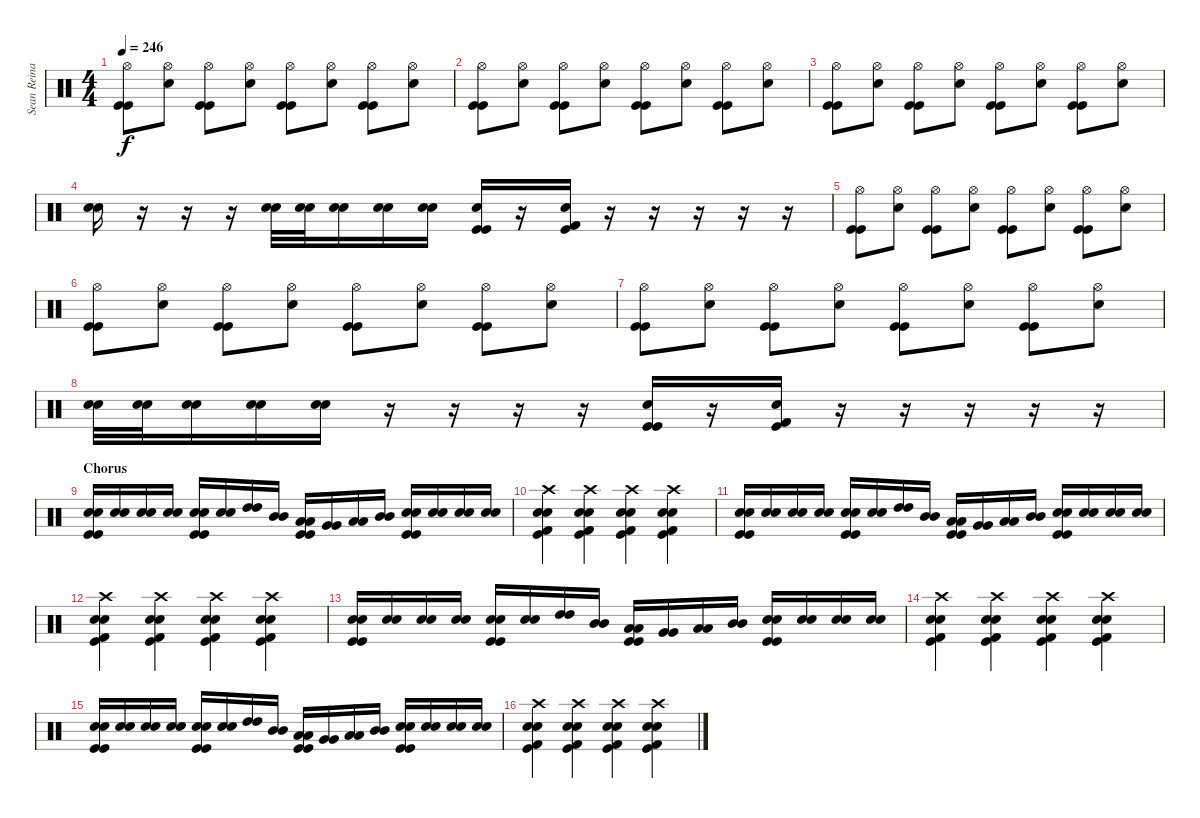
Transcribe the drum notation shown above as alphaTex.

\track ("Sean Reinart" "Sean Reina") {instrument percussion}
\staff {score}
\articulation defaults
\ts (4 4)
\tempo 246
\clef neutral
\ks c
("Hi-Hat (open)" "Kick (hit)" "Kick (hit)").8{dy f} ("Hi-Hat (open)" "Snare (hit) 2").8 ("Hi-Hat (open)" "Kick (hit)" "Kick (hit)").8 ("Hi-Hat (open)" "Snare (hit) 2").8 ("Hi-Hat (open)" "Kick (hit)" "Kick (hit)").8 ("Hi-Hat (open)" "Snare (hit) 2").8 ("Hi-Hat (open)" "Kick (hit)" "Kick (hit)").8 ("Hi-Hat (open)" "Snare (hit) 2").8 |
("Hi-Hat (open)" "Kick (hit)" "Kick (hit)").8 ("Hi-Hat (open)" "Snare (hit) 2").8 ("Hi-Hat (open)" "Kick (hit)" "Kick (hit)").8 ("Hi-Hat (open)" "Snare (hit) 2").8 ("Hi-Hat (open)" "Kick (hit)" "Kick (hit)").8 ("Hi-Hat (open)" "Snare (hit) 2").8 ("Hi-Hat (open)" "Kick (hit)" "Kick (hit)").8 ("Hi-Hat (open)" "Snare (hit) 2").8 |
("Hi-Hat (open)" "Kick (hit)" "Kick (hit)").8 ("Hi-Hat (open)" "Snare (hit) 2").8 ("Hi-Hat (open)" "Kick (hit)" "Kick (hit)").8 ("Hi-Hat (open)" "Snare (hit) 2").8 ("Hi-Hat (open)" "Kick (hit)" "Kick (hit)").8 ("Hi-Hat (open)" "Snare (hit) 2").8 ("Hi-Hat (open)" "Kick (hit)" "Kick (hit)").8 ("Hi-Hat (open)" "Snare (hit) 2").8 |
("Snare (hit) 2" "Electric Snare (hit)").16 r.16 r.16 r.16 ("Snare (hit) 2" "Electric Snare (hit)").32 ("Snare (hit) 2" "Electric Snare (hit)").32 ("Snare (hit) 2" "Electric Snare (hit)").16 ("Snare (hit) 2" "Electric Snare (hit)").16 ("Snare (hit) 2" "Electric Snare (hit)").16 ("Snare (hit) 2" "Kick (hit)" "Kick (hit)").16 r.16 ("Snare (hit) 2" "Kick (hit)" "Kick (hit) 2").16 r.16 r.16 r.16 r.16 r.16 |
("Hi-Hat (open)" "Kick (hit)" "Kick (hit)").8 ("Hi-Hat (open)" "Snare (hit) 2").8 ("Hi-Hat (open)" "Kick (hit)" "Kick (hit)").8 ("Hi-Hat (open)" "Snare (hit) 2").8 ("Hi-Hat (open)" "Kick (hit)" "Kick (hit)").8 ("Hi-Hat (open)" "Snare (hit) 2").8 ("Hi-Hat (open)" "Kick (hit)" "Kick (hit)").8 ("Hi-Hat (open)" "Snare (hit) 2").8 |
("Hi-Hat (open)" "Kick (hit)" "Kick (hit)").8 ("Hi-Hat (open)" "Snare (hit) 2").8 ("Hi-Hat (open)" "Kick (hit)" "Kick (hit)").8 ("Hi-Hat (open)" "Snare (hit) 2").8 ("Hi-Hat (open)" "Kick (hit)" "Kick (hit)").8 ("Hi-Hat (open)" "Snare (hit) 2").8 ("Hi-Hat (open)" "Kick (hit)" "Kick (hit)").8 ("Hi-Hat (open)" "Snare (hit) 2").8 |
("Hi-Hat (open)" "Kick (hit)" "Kick (hit)").8 ("Hi-Hat (open)" "Snare (hit) 2").8 ("Hi-Hat (open)" "Kick (hit)" "Kick (hit)").8 ("Hi-Hat (open)" "Snare (hit) 2").8 ("Hi-Hat (open)" "Kick (hit)" "Kick (hit)").8 ("Hi-Hat (open)" "Snare (hit) 2").8 ("Hi-Hat (open)" "Kick (hit)" "Kick (hit)").8 ("Hi-Hat (open)" "Snare (hit) 2").8 |
("Snare (hit) 2" "Electric Snare (hit)").32 ("Snare (hit) 2" "Electric Snare (hit)").32 ("Snare (hit) 2" "Electric Snare (hit)").16 ("Snare (hit) 2" "Electric Snare (hit)").16 ("Snare (hit) 2" "Electric Snare (hit)").16 r.16 r.16 r.16 r.16 ("Snare (hit) 2" "Kick (hit)" "Kick (hit)").16 r.16 ("Snare (hit) 2" "Kick (hit)" "Kick (hit) 2").16 r.16 r.16 r.16 r.16 r.16 |
\section ("" "Chorus")
("Snare (hit) 2" "Electric Snare (hit)" "Kick (hit)" "Kick (hit)").16 ("Snare (hit) 2" "Electric Snare (hit)").16 ("Snare (hit) 2" "Electric Snare (hit)").16 ("Snare (hit) 2" "Electric Snare (hit)").16 ("Snare (hit) 2" "Electric Snare (hit)" "Kick (hit)" "Kick (hit)").16 ("Snare (hit) 2" "Electric Snare (hit)").16 ("High Tom (hit)" "High Tom (hit)").16 ("Mid Tom (hit)" "Mid Tom (hit)").16 ("Low Tom (hit)" "Low Tom (hit)" "Kick (hit)" "Kick (hit)").16 ("Very Low Tom (hit)" "Very Low Tom (hit)").16 ("Low Tom (hit)" "Low Tom (hit)").16 ("Mid Tom (hit)" "Mid Tom (hit)").16 ("Snare (hit) 2" "Electric Snare (hit)" "Kick (hit)" "Kick (hit)").16 ("Snare (hit) 2" "Electric Snare (hit)").16 ("Snare (hit) 2" "Electric Snare (hit)").16 ("Snare (hit) 2" "Electric Snare (hit)").16 |
("Crash high (hit)" "Snare (hit) 2" "Electric Snare (hit)" "Kick (hit)" "Kick (hit) 2").4 ("Crash high (hit)" "Snare (hit) 2" "Electric Snare (hit)" "Kick (hit)" "Kick (hit) 2").4 ("Crash high (hit)" "Snare (hit) 2" "Electric Snare (hit)" "Kick (hit)" "Kick (hit) 2").4 ("Crash high (hit)" "Snare (hit) 2" "Electric Snare (hit)" "Kick (hit)" "Kick (hit) 2").4 |
("Snare (hit) 2" "Electric Snare (hit)" "Kick (hit)" "Kick (hit)").16 ("Snare (hit) 2" "Electric Snare (hit)").16 ("Snare (hit) 2" "Electric Snare (hit)").16 ("Snare (hit) 2" "Electric Snare (hit)").16 ("Snare (hit) 2" "Electric Snare (hit)" "Kick (hit)" "Kick (hit)").16 ("Snare (hit) 2" "Electric Snare (hit)").16 ("High Tom (hit)" "High Tom (hit)").16 ("Mid Tom (hit)" "Mid Tom (hit)").16 ("Low Tom (hit)" "Low Tom (hit)" "Kick (hit)" "Kick (hit)").16 ("Very Low Tom (hit)" "Very Low Tom (hit)").16 ("Low Tom (hit)" "Low Tom (hit)").16 ("Mid Tom (hit)" "Mid Tom (hit)").16 ("Snare (hit) 2" "Electric Snare (hit)" "Kick (hit)" "Kick (hit)").16 ("Snare (hit) 2" "Electric Snare (hit)").16 ("Snare (hit) 2" "Electric Snare (hit)").16 ("Snare (hit) 2" "Electric Snare (hit)").16 |
("Crash high (hit)" "Snare (hit) 2" "Electric Snare (hit)" "Kick (hit)" "Kick (hit) 2").4 ("Crash high (hit)" "Snare (hit) 2" "Electric Snare (hit)" "Kick (hit)" "Kick (hit) 2").4 ("Crash high (hit)" "Snare (hit) 2" "Electric Snare (hit)" "Kick (hit)" "Kick (hit) 2").4 ("Crash high (hit)" "Snare (hit) 2" "Electric Snare (hit)" "Kick (hit)" "Kick (hit) 2").4 |
("Snare (hit) 2" "Electric Snare (hit)" "Kick (hit)" "Kick (hit)").16 ("Snare (hit) 2" "Electric Snare (hit)").16 ("Snare (hit) 2" "Electric Snare (hit)").16 ("Snare (hit) 2" "Electric Snare (hit)").16 ("Snare (hit) 2" "Electric Snare (hit)" "Kick (hit)" "Kick (hit)").16 ("Snare (hit) 2" "Electric Snare (hit)").16 ("High Tom (hit)" "High Tom (hit)").16 ("Mid Tom (hit)" "Mid Tom (hit)").16 ("Low Tom (hit)" "Low Tom (hit)" "Kick (hit)" "Kick (hit)").16 ("Very Low Tom (hit)" "Very Low Tom (hit)").16 ("Low Tom (hit)" "Low Tom (hit)").16 ("Mid Tom (hit)" "Mid Tom (hit)").16 ("Snare (hit) 2" "Electric Snare (hit)" "Kick (hit)" "Kick (hit)").16 ("Snare (hit) 2" "Electric Snare (hit)").16 ("Snare (hit) 2" "Electric Snare (hit)").16 ("Snare (hit) 2" "Electric Snare (hit)").16 |
("Crash high (hit)" "Snare (hit) 2" "Electric Snare (hit)" "Kick (hit)" "Kick (hit) 2").4 ("Crash high (hit)" "Snare (hit) 2" "Electric Snare (hit)" "Kick (hit)" "Kick (hit) 2").4 ("Crash high (hit)" "Snare (hit) 2" "Electric Snare (hit)" "Kick (hit)" "Kick (hit) 2").4 ("Crash high (hit)" "Snare (hit) 2" "Electric Snare (hit)" "Kick (hit)" "Kick (hit) 2").4 |
("Snare (hit) 2" "Electric Snare (hit)" "Kick (hit)" "Kick (hit)").16 ("Snare (hit) 2" "Electric Snare (hit)").16 ("Snare (hit) 2" "Electric Snare (hit)").16 ("Snare (hit) 2" "Electric Snare (hit)").16 ("Snare (hit) 2" "Electric Snare (hit)" "Kick (hit)" "Kick (hit)").16 ("Snare (hit) 2" "Electric Snare (hit)").16 ("High Tom (hit)" "High Tom (hit)").16 ("Mid Tom (hit)" "Mid Tom (hit)").16 ("Low Tom (hit)" "Low Tom (hit)" "Kick (hit)" "Kick (hit)").16 ("Very Low Tom (hit)" "Very Low Tom (hit)").16 ("Low Tom (hit)" "Low Tom (hit)").16 ("Mid Tom (hit)" "Mid Tom (hit)").16 ("Snare (hit) 2" "Electric Snare (hit)" "Kick (hit)" "Kick (hit)").16 ("Snare (hit) 2" "Electric Snare (hit)").16 ("Snare (hit) 2" "Electric Snare (hit)").16 ("Snare (hit) 2" "Electric Snare (hit)").16 |
("Crash high (hit)" "Snare (hit) 2" "Electric Snare (hit)" "Kick (hit)" "Kick (hit) 2").4 ("Crash high (hit)" "Snare (hit) 2" "Electric Snare (hit)" "Kick (hit)" "Kick (hit) 2").4 ("Crash high (hit)" "Snare (hit) 2" "Electric Snare (hit)" "Kick (hit)" "Kick (hit) 2").4 ("Crash high (hit)" "Snare (hit) 2" "Electric Snare (hit)" "Kick (hit)" "Kick (hit) 2").4
